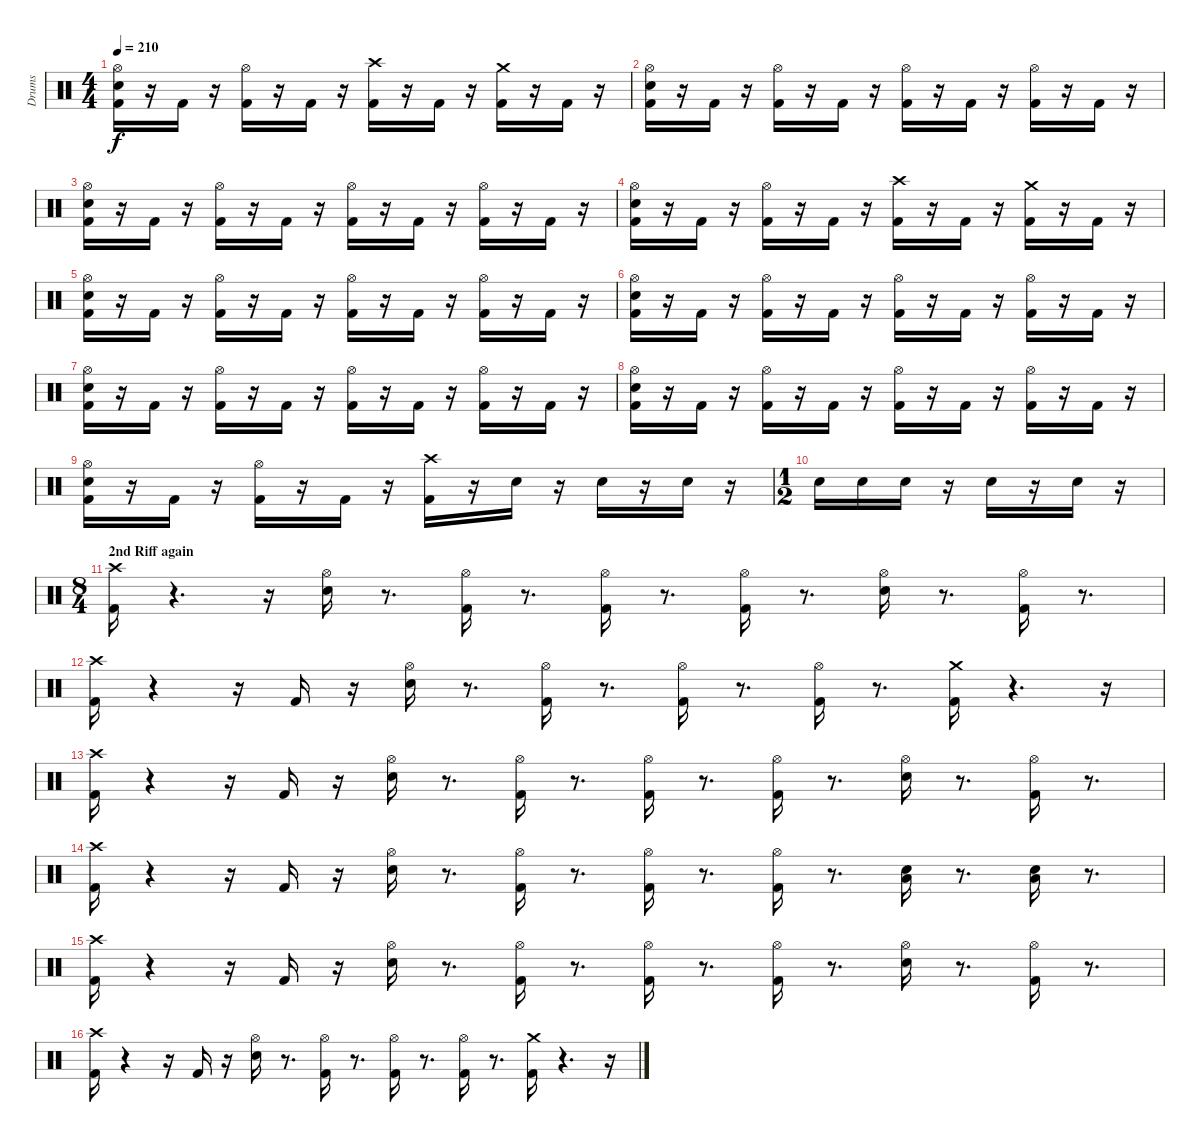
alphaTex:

\track ("Drums" "Drums") {instrument percussion}
\staff {score}
\articulation defaults
\ts (4 4)
\tempo 210
\clef neutral
\ks c
("Hi-Hat (open)" "Kick (hit) 2" "Snare (hit) 2").16{dy f} r.16 "Kick (hit) 2".16 r.16 ("Kick (hit) 2" "Hi-Hat (open)").16 r.16 "Kick (hit) 2".16 r.16 ("Crash high (hit)" "Kick (hit) 2").16 r.16 "Kick (hit) 2".16 r.16 ("Crash medium (hit)" "Kick (hit) 2").16 r.16 "Kick (hit) 2".16 r.16 |
("Hi-Hat (open)" "Kick (hit) 2" "Snare (hit) 2").16 r.16 "Kick (hit) 2".16 r.16 ("Hi-Hat (open)" "Kick (hit) 2").16 r.16 "Kick (hit) 2".16 r.16 ("Hi-Hat (open)" "Kick (hit) 2").16 r.16 "Kick (hit) 2".16 r.16 ("Hi-Hat (open)" "Kick (hit) 2").16 r.16 "Kick (hit) 2".16 r.16 |
("Hi-Hat (open)" "Kick (hit) 2" "Snare (hit) 2").16 r.16 "Kick (hit) 2".16 r.16 ("Hi-Hat (open)" "Kick (hit) 2").16 r.16 "Kick (hit) 2".16 r.16 ("Hi-Hat (open)" "Kick (hit) 2").16 r.16 "Kick (hit) 2".16 r.16 ("Hi-Hat (open)" "Kick (hit) 2").16 r.16 "Kick (hit) 2".16 r.16 |
("Snare (hit) 2" "Kick (hit) 2" "Hi-Hat (open)").16 r.16 "Kick (hit) 2".16 r.16 ("Hi-Hat (open)" "Kick (hit) 2").16 r.16 "Kick (hit) 2".16 r.16 ("Kick (hit) 2" "Crash high (hit)").16 r.16 "Kick (hit) 2".16 r.16 ("Kick (hit) 2" "Crash medium (hit)").16 r.16 "Kick (hit) 2".16 r.16 |
("Kick (hit) 2" "Snare (hit) 2" "Hi-Hat (open)").16 r.16 "Kick (hit) 2".16 r.16 ("Hi-Hat (open)" "Kick (hit) 2").16 r.16 "Kick (hit) 2".16 r.16 ("Kick (hit) 2" "Hi-Hat (open)").16 r.16 "Kick (hit) 2".16 r.16 ("Hi-Hat (open)" "Kick (hit) 2").16 r.16 "Kick (hit) 2".16 r.16 |
("Hi-Hat (open)" "Kick (hit) 2" "Snare (hit) 2").16 r.16 "Kick (hit) 2".16 r.16 ("Kick (hit) 2" "Hi-Hat (open)").16 r.16 "Kick (hit) 2".16 r.16 ("Hi-Hat (open)" "Kick (hit) 2").16 r.16 "Kick (hit) 2".16 r.16 ("Kick (hit) 2" "Hi-Hat (open)").16 r.16 "Kick (hit) 2".16 r.16 |
("Kick (hit) 2" "Hi-Hat (open)" "Snare (hit) 2").16 r.16 "Kick (hit) 2".16 r.16 ("Kick (hit) 2" "Hi-Hat (open)").16 r.16 "Kick (hit) 2".16 r.16 ("Hi-Hat (open)" "Kick (hit) 2").16 r.16 "Kick (hit) 2".16 r.16 ("Hi-Hat (open)" "Kick (hit) 2").16 r.16 "Kick (hit) 2".16 r.16 |
("Hi-Hat (open)" "Snare (hit) 2" "Kick (hit) 2").16 r.16 "Kick (hit) 2".16 r.16 ("Kick (hit) 2" "Hi-Hat (open)").16 r.16 "Kick (hit) 2".16 r.16 ("Kick (hit) 2" "Hi-Hat (open)").16 r.16 "Kick (hit) 2".16 r.16 ("Hi-Hat (open)" "Kick (hit) 2").16 r.16 "Kick (hit) 2".16 r.16 |
("Snare (hit) 2" "Kick (hit) 2" "Hi-Hat (open)").16 r.16 "Kick (hit) 2".16 r.16 ("Hi-Hat (open)" "Kick (hit) 2").16 r.16 "Kick (hit) 2".16 r.16 ("Crash high (hit)" "Kick (hit) 2").16 r.16 "Snare (hit) 2".16 r.16 "Snare (hit) 2".16 r.16 "Snare (hit) 2".16 r.16 |
\ts (1 2)
"Snare (hit) 2".16 "Snare (hit) 2".16 "Snare (hit) 2".16 r.16 "Snare (hit) 2".16 r.16 "Snare (hit) 2".16 r.16 |
\ts (8 4)
\section ("" "2nd Riff again")
("Crash high (hit)" "Kick (hit) 2").16 r.4{d} r.16 ("Snare (hit) 2" "Hi-Hat (open)").16 r.8{d} ("Hi-Hat (open)" "Kick (hit) 2").16 r.8{d} ("Hi-Hat (open)" "Kick (hit) 2").16 r.8{d} ("Hi-Hat (open)" "Kick (hit) 2").16 r.8{d} ("Hi-Hat (open)" "Snare (hit) 2").16 r.8{d} ("Hi-Hat (open)" "Kick (hit) 2").16 r.8{d} |
("Crash high (hit)" "Kick (hit) 2").16 r.4 r.16 "Kick (hit) 2".16 r.16 ("Snare (hit) 2" "Hi-Hat (open)").16 r.8{d} ("Kick (hit) 2" "Hi-Hat (open)").16 r.8{d} ("Hi-Hat (open)" "Kick (hit) 2").16 r.8{d} ("Kick (hit) 2" "Hi-Hat (open)").16 r.8{d} ("Kick (hit) 2" "Crash medium (hit)").16 r.4{d} r.16 |
("Crash high (hit)" "Kick (hit) 2").16 r.4 r.16 "Kick (hit) 2".16 r.16 ("Snare (hit) 2" "Hi-Hat (open)").16 r.8{d} ("Hi-Hat (open)" "Kick (hit) 2").16 r.8{d} ("Hi-Hat (open)" "Kick (hit) 2").16 r.8{d} ("Kick (hit) 2" "Hi-Hat (open)").16 r.8{d} ("Snare (hit) 2" "Hi-Hat (open)").16 r.8{d} ("Hi-Hat (open)" "Kick (hit) 2").16 r.8{d} |
("Crash high (hit)" "Kick (hit) 2").16 r.4 r.16 "Kick (hit) 2".16 r.16 ("Snare (hit) 2" "Hi-Hat (open)").16 r.8{d} ("Kick (hit) 2" "Hi-Hat (open)").16 r.8{d} ("Kick (hit) 2" "Hi-Hat (open)").16 r.8{d} ("Kick (hit) 2" "Hi-Hat (open)").16 r.8{d} ("Snare (hit) 2" "Low Tom (hit)").16 r.8{d} ("Low Tom (hit)" "Snare (hit) 2").16 r.8{d} |
("Crash high (hit)" "Kick (hit) 2").16 r.4 r.16 "Kick (hit) 2".16 r.16 ("Hi-Hat (open)" "Snare (hit) 2").16 r.8{d} ("Hi-Hat (open)" "Kick (hit) 2").16 r.8{d} ("Hi-Hat (open)" "Kick (hit) 2").16 r.8{d} ("Hi-Hat (open)" "Kick (hit) 2").16 r.8{d} ("Snare (hit) 2" "Hi-Hat (open)").16 r.8{d} ("Kick (hit) 2" "Hi-Hat (open)").16 r.8{d} |
("Kick (hit) 2" "Crash high (hit)").16 r.4 r.16 "Kick (hit) 2".16 r.16 ("Snare (hit) 2" "Hi-Hat (open)").16 r.8{d} ("Kick (hit) 2" "Hi-Hat (open)").16 r.8{d} ("Kick (hit) 2" "Hi-Hat (open)").16 r.8{d} ("Kick (hit) 2" "Hi-Hat (open)").16 r.8{d} ("Crash medium (hit)" "Kick (hit) 2").16 r.4{d} r.16
